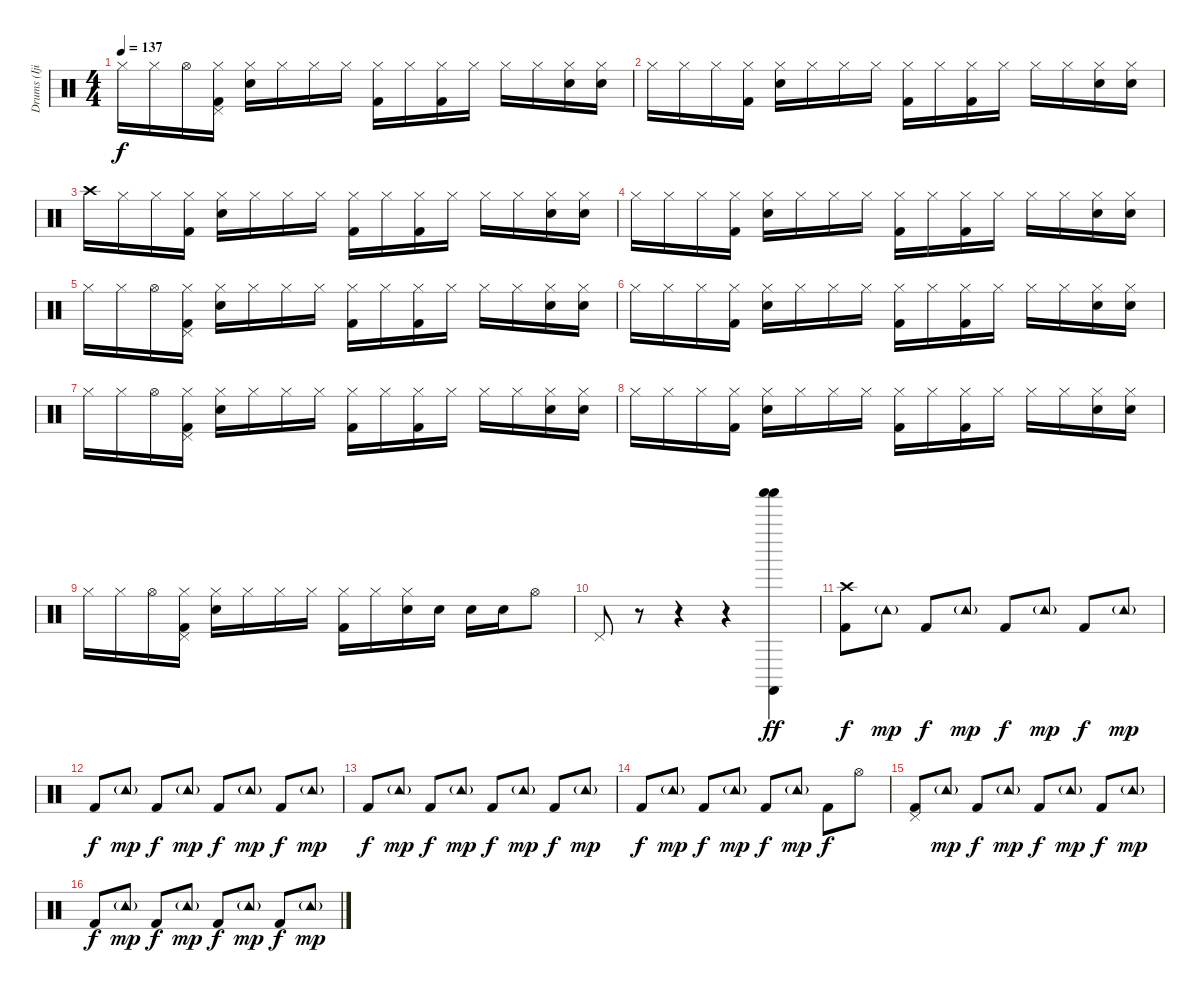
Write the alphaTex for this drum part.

\track ("Drums (Ijichi)" "Drums (Iji") {instrument percussion}
\staff {score}
\articulation defaults
\ts (4 4)
\tempo 137
\clef neutral
\ks c "Hi-Hat (closed)".16{dy f} "Hi-Hat (closed)".16 "Hi-Hat (open)".16
("Hi-Hat (closed)" "Pedal Hi-Hat (hit)" "Kick (hit) 2").16 ("Hi-Hat (closed)" "Snare (hit) 2").16 "Hi-Hat (closed)".16 "Hi-Hat (closed)".16 "Hi-Hat (closed)".16 ("Hi-Hat (closed)" "Kick (hit) 2").16 "Hi-Hat (closed)".16 ("Hi-Hat (closed)" "Kick (hit) 2").16 "Hi-Hat (closed)".16 "Hi-Hat (closed)".16 "Hi-Hat (closed)".16 ("Hi-Hat (closed)" "Snare (hit) 2").16 ("Hi-Hat (closed)" "Snare (hit) 2").16 |
"Hi-Hat (closed)".16 "Hi-Hat (closed)".16 "Hi-Hat (closed)".16 ("Hi-Hat (closed)" "Kick (hit) 2").16 ("Hi-Hat (closed)" "Snare (hit) 2").16 "Hi-Hat (closed)".16 "Hi-Hat (closed)".16 "Hi-Hat (closed)".16 ("Hi-Hat (closed)" "Kick (hit) 2").16 "Hi-Hat (closed)".16 ("Hi-Hat (closed)" "Kick (hit) 2").16 "Hi-Hat (closed)".16 "Hi-Hat (closed)".16 "Hi-Hat (closed)".16 ("Hi-Hat (closed)" "Snare (hit) 2").16 ("Hi-Hat (closed)" "Snare (hit) 2").16 |
"Crash high (hit)".16 "Hi-Hat (closed)".16 "Hi-Hat (closed)".16 ("Hi-Hat (closed)" "Kick (hit) 2").16 ("Hi-Hat (closed)" "Snare (hit) 2").16 "Hi-Hat (closed)".16 "Hi-Hat (closed)".16 "Hi-Hat (closed)".16 ("Hi-Hat (closed)" "Kick (hit) 2").16 "Hi-Hat (closed)".16 ("Hi-Hat (closed)" "Kick (hit) 2").16 "Hi-Hat (closed)".16 "Hi-Hat (closed)".16 "Hi-Hat (closed)".16 ("Hi-Hat (closed)" "Snare (hit) 2").16 ("Hi-Hat (closed)" "Snare (hit) 2").16 |
"Hi-Hat (closed)".16 "Hi-Hat (closed)".16 "Hi-Hat (closed)".16 ("Hi-Hat (closed)" "Kick (hit) 2").16 ("Hi-Hat (closed)" "Snare (hit) 2").16 "Hi-Hat (closed)".16 "Hi-Hat (closed)".16 "Hi-Hat (closed)".16 ("Hi-Hat (closed)" "Kick (hit) 2").16 "Hi-Hat (closed)".16 ("Hi-Hat (closed)" "Kick (hit) 2").16 "Hi-Hat (closed)".16 "Hi-Hat (closed)".16 "Hi-Hat (closed)".16 ("Hi-Hat (closed)" "Snare (hit) 2").16 ("Hi-Hat (closed)" "Snare (hit) 2").16 |
"Hi-Hat (closed)".16 "Hi-Hat (closed)".16 "Hi-Hat (open)".16 ("Hi-Hat (closed)" "Pedal Hi-Hat (hit)" "Kick (hit) 2").16 ("Hi-Hat (closed)" "Snare (hit) 2").16 "Hi-Hat (closed)".16 "Hi-Hat (closed)".16 "Hi-Hat (closed)".16 ("Hi-Hat (closed)" "Kick (hit) 2").16 "Hi-Hat (closed)".16 ("Hi-Hat (closed)" "Kick (hit) 2").16 "Hi-Hat (closed)".16 "Hi-Hat (closed)".16 "Hi-Hat (closed)".16 ("Hi-Hat (closed)" "Snare (hit) 2").16 ("Hi-Hat (closed)" "Snare (hit) 2").16 |
"Hi-Hat (closed)".16 "Hi-Hat (closed)".16 "Hi-Hat (closed)".16 ("Hi-Hat (closed)" "Kick (hit) 2").16 ("Hi-Hat (closed)" "Snare (hit) 2").16 "Hi-Hat (closed)".16 "Hi-Hat (closed)".16 "Hi-Hat (closed)".16 ("Hi-Hat (closed)" "Kick (hit) 2").16 "Hi-Hat (closed)".16 ("Hi-Hat (closed)" "Kick (hit) 2").16 "Hi-Hat (closed)".16 "Hi-Hat (closed)".16 "Hi-Hat (closed)".16 ("Hi-Hat (closed)" "Snare (hit) 2").16 ("Hi-Hat (closed)" "Snare (hit) 2").16 |
"Hi-Hat (closed)".16 "Hi-Hat (closed)".16 "Hi-Hat (open)".16 ("Hi-Hat (closed)" "Pedal Hi-Hat (hit)" "Kick (hit) 2").16 ("Hi-Hat (closed)" "Snare (hit) 2").16 "Hi-Hat (closed)".16 "Hi-Hat (closed)".16 "Hi-Hat (closed)".16 ("Hi-Hat (closed)" "Kick (hit) 2").16 "Hi-Hat (closed)".16 ("Hi-Hat (closed)" "Kick (hit) 2").16 "Hi-Hat (closed)".16 "Hi-Hat (closed)".16 "Hi-Hat (closed)".16 ("Hi-Hat (closed)" "Snare (hit) 2").16 ("Hi-Hat (closed)" "Snare (hit) 2").16 |
"Hi-Hat (closed)".16 "Hi-Hat (closed)".16 "Hi-Hat (closed)".16 ("Hi-Hat (closed)" "Kick (hit) 2").16 ("Hi-Hat (closed)" "Snare (hit) 2").16 "Hi-Hat (closed)".16 "Hi-Hat (closed)".16 "Hi-Hat (closed)".16 ("Hi-Hat (closed)" "Kick (hit) 2").16 "Hi-Hat (closed)".16 ("Hi-Hat (closed)" "Kick (hit) 2").16 "Hi-Hat (closed)".16 "Hi-Hat (closed)".16 "Hi-Hat (closed)".16 ("Hi-Hat (closed)" "Snare (hit) 2").16 ("Hi-Hat (closed)" "Snare (hit) 2").16 |
"Hi-Hat (closed)".16 "Hi-Hat (closed)".16 "Hi-Hat (open)".16 ("Hi-Hat (closed)" "Pedal Hi-Hat (hit)" "Kick (hit) 2").16 ("Hi-Hat (closed)" "Snare (hit) 2").16 "Hi-Hat (closed)".16 "Hi-Hat (closed)".16 "Hi-Hat (closed)".16 ("Hi-Hat (closed)" "Kick (hit) 2").16 "Hi-Hat (closed)".16 ("Hi-Hat (closed)" "Snare (hit) 2").16 "Snare (hit) 2".16 "Snare (hit) 2".16 "Snare (hit) 2".16 "Hi-Hat (open)".8 |
"Pedal Hi-Hat (hit)".8 r.8 r.4 r.4 ("Shaker (hit)" "Shaker (hit)" "Castanets (hit)").4{dy ff} |
("Crash high (hit)" "Kick (hit) 2").8{dy f} "Tambourine (hit)"{g}.8{dy mp} "Kick (hit) 2".8{dy f} "Tambourine (hit)"{g}.8{dy mp} "Kick (hit) 2".8{dy f} "Tambourine (hit)"{g}.8{dy mp} "Kick (hit) 2".8{dy f} "Tambourine (hit)"{g}.8{dy mp} |
"Kick (hit) 2".8{dy f} "Tambourine (hit)"{g}.8{dy mp} "Kick (hit) 2".8{dy f} "Tambourine (hit)"{g}.8{dy mp} "Kick (hit) 2".8{dy f} "Tambourine (hit)"{g}.8{dy mp} "Kick (hit) 2".8{dy f} "Tambourine (hit)"{g}.8{dy mp} |
"Kick (hit) 2".8{dy f} "Tambourine (hit)"{g}.8{dy mp} "Kick (hit) 2".8{dy f} "Tambourine (hit)"{g}.8{dy mp} "Kick (hit) 2".8{dy f} "Tambourine (hit)"{g}.8{dy mp} "Kick (hit) 2".8{dy f} "Tambourine (hit)"{g}.8{dy mp} |
"Kick (hit) 2".8{dy f} "Tambourine (hit)"{g}.8{dy mp} "Kick (hit) 2".8{dy f} "Tambourine (hit)"{g}.8{dy mp} "Kick (hit) 2".8{dy f} "Tambourine (hit)"{g}.8{dy mp} "Kick (hit) 2".8{dy f} "Hi-Hat (open)".8 |
("Pedal Hi-Hat (hit)" "Kick (hit) 2").8 "Tambourine (hit)"{g}.8{dy mp} "Kick (hit) 2".8{dy f} "Tambourine (hit)"{g}.8{dy mp} "Kick (hit) 2".8{dy f} "Tambourine (hit)"{g}.8{dy mp} "Kick (hit) 2".8{dy f} "Tambourine (hit)"{g}.8{dy mp} |
"Kick (hit) 2".8{dy f} "Tambourine (hit)"{g}.8{dy mp} "Kick (hit) 2".8{dy f} "Tambourine (hit)"{g}.8{dy mp} "Kick (hit) 2".8{dy f} "Tambourine (hit)"{g}.8{dy mp} "Kick (hit) 2".8{dy f} "Tambourine (hit)"{g}.8{dy mp}
